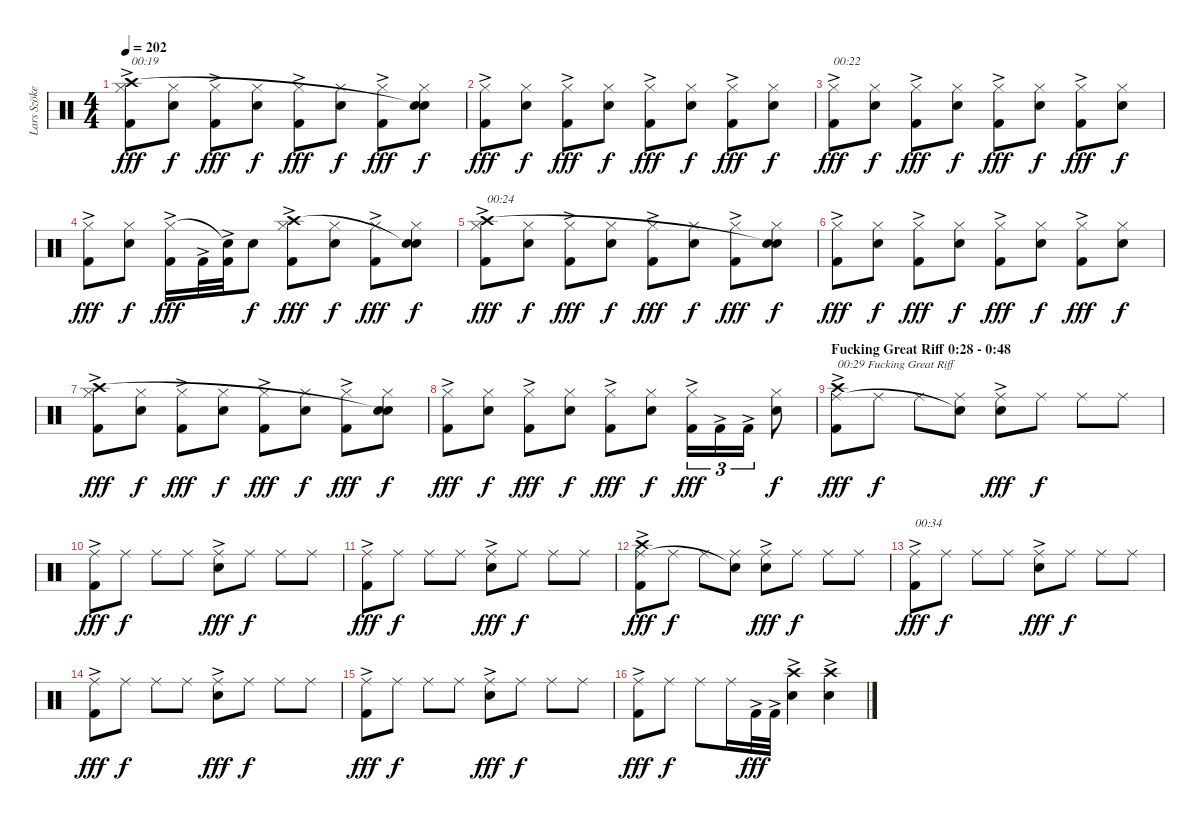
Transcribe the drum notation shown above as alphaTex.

\track ("Lars Szöke" "Lars Szöke") {instrument percussion}
\staff {score}
\articulation defaults
\ts (4 4)
\tempo 202
\clef neutral
\ks c
("Kick (hit) 2"{ac} "Hi-Hat (closed)" "Crash high (hit)"{ac}).8{txt "00:19" dy fff} ("Snare (hit) 2" "Hi-Hat (closed)").8{dy f} ("Kick (hit) 2"{ac} "Hi-Hat (closed)").8{dy fff} ("Snare (hit) 2" "Hi-Hat (closed)").8{dy f} ("Kick (hit) 2"{ac} "Hi-Hat (closed)").8{dy fff} ("Snare (hit) 2" "Hi-Hat (closed)").8{dy f} ("Kick (hit) 2"{ac} "Hi-Hat (closed)").8{dy fff} ("Snare (hit) 2" "Hi-Hat (closed)" "Snare (hit)"{t}).8{dy f} |
("Kick (hit) 2"{ac} "Hi-Hat (closed)").8{dy fff} ("Snare (hit) 2" "Hi-Hat (closed)").8{dy f} ("Kick (hit) 2"{ac} "Hi-Hat (closed)").8{dy fff} ("Snare (hit) 2" "Hi-Hat (closed)").8{dy f} ("Kick (hit) 2"{ac} "Hi-Hat (closed)").8{dy fff} ("Snare (hit) 2" "Hi-Hat (closed)").8{dy f} ("Kick (hit) 2"{ac} "Hi-Hat (closed)").8{dy fff} ("Snare (hit) 2" "Hi-Hat (closed)").8{dy f} |
("Kick (hit) 2"{ac} "Hi-Hat (closed)").8{txt "00:22" dy fff} ("Snare (hit) 2" "Hi-Hat (closed)").8{dy f} ("Kick (hit) 2"{ac} "Hi-Hat (closed)").8{dy fff} ("Snare (hit) 2" "Hi-Hat (closed)").8{dy f} ("Kick (hit) 2"{ac} "Hi-Hat (closed)").8{dy fff} ("Snare (hit) 2" "Hi-Hat (closed)").8{dy f} ("Kick (hit) 2"{ac} "Hi-Hat (closed)").8{dy fff} ("Snare (hit) 2" "Hi-Hat (closed)").8{dy f} |
("Kick (hit) 2"{ac} "Hi-Hat (closed)").8{dy fff} ("Snare (hit) 2" "Hi-Hat (closed)").8{dy f} ("Kick (hit) 2"{ac} "Hi-Hat (closed)").16{dy fff} "Kick (hit) 2"{ac}.32 ("Kick (hit) 2"{ac} "Snare (hit)"{t}).32 "Snare (hit) 2".8{dy f} ("Kick (hit) 2"{ac} "Hi-Hat (closed)" "Crash high (hit)"{ac}).8{dy fff} ("Snare (hit) 2" "Hi-Hat (closed)").8{dy f} ("Kick (hit) 2"{ac} "Hi-Hat (closed)").8{dy fff} ("Snare (hit) 2" "Hi-Hat (closed)" "Snare (hit)"{t}).8{dy f} |
("Kick (hit) 2"{ac} "Hi-Hat (closed)" "Crash high (hit)"{ac}).8{txt "00:24" dy fff} ("Snare (hit) 2" "Hi-Hat (closed)").8{dy f} ("Kick (hit) 2"{ac} "Hi-Hat (closed)").8{dy fff} ("Snare (hit) 2" "Hi-Hat (closed)").8{dy f} ("Kick (hit) 2"{ac} "Hi-Hat (closed)").8{dy fff} ("Snare (hit) 2" "Hi-Hat (closed)").8{dy f} ("Kick (hit) 2"{ac} "Hi-Hat (closed)").8{dy fff} ("Snare (hit) 2" "Hi-Hat (closed)" "Snare (hit)"{t}).8{dy f} |
("Kick (hit) 2"{ac} "Hi-Hat (closed)").8{dy fff} ("Snare (hit) 2" "Hi-Hat (closed)").8{dy f} ("Kick (hit) 2"{ac} "Hi-Hat (closed)").8{dy fff} ("Snare (hit) 2" "Hi-Hat (closed)").8{dy f} ("Kick (hit) 2"{ac} "Hi-Hat (closed)").8{dy fff} ("Snare (hit) 2" "Hi-Hat (closed)").8{dy f} ("Kick (hit) 2"{ac} "Hi-Hat (closed)").8{dy fff} ("Snare (hit) 2" "Hi-Hat (closed)").8{dy f} |
("Kick (hit) 2"{ac} "Hi-Hat (closed)" "Crash high (hit)"{ac}).8{dy fff} ("Snare (hit) 2" "Hi-Hat (closed)").8{dy f} ("Kick (hit) 2"{ac} "Hi-Hat (closed)").8{dy fff} ("Snare (hit) 2" "Hi-Hat (closed)").8{dy f} ("Kick (hit) 2"{ac} "Hi-Hat (closed)").8{dy fff} ("Snare (hit) 2" "Hi-Hat (closed)").8{dy f} ("Kick (hit) 2"{ac} "Hi-Hat (closed)").8{dy fff} ("Snare (hit) 2" "Hi-Hat (closed)" "Snare (hit)"{t}).8{dy f} |
("Kick (hit) 2"{ac} "Hi-Hat (closed)").8{dy fff} ("Snare (hit) 2" "Hi-Hat (closed)").8{dy f} ("Kick (hit) 2"{ac} "Hi-Hat (closed)").8{dy fff} ("Snare (hit) 2" "Hi-Hat (closed)").8{dy f} ("Kick (hit) 2"{ac} "Hi-Hat (closed)").8{dy fff} ("Snare (hit) 2" "Hi-Hat (closed)").8{dy f} ("Kick (hit) 2"{ac} "Hi-Hat (closed)").16{tu (3 2) dy fff} "Kick (hit) 2"{ac}.16{tu (3 2)} "Kick (hit) 2"{ac}.16{tu (3 2)} ("Snare (hit) 2" "Hi-Hat (closed)").8{dy f} |
\section ("" "Fucking Great Riff 0:28 - 0:48")
("Kick (hit) 2"{ac} "Ride (middle)" "Crash high (hit)"{ac}).8{txt "00:29 Fucking Great Riff" dy fff} "Ride (middle)".8{dy f} "Ride (middle)".8 ("Ride (middle)" "Snare (hit)"{t}).8 ("Snare (hit) 2"{ac} "Ride (middle)").8{dy fff} "Ride (middle)".8{dy f} "Ride (middle)".8 "Ride (middle)".8 |
("Kick (hit) 2"{ac} "Ride (middle)").8{dy fff} "Ride (middle)".8{dy f} "Ride (middle)".8 "Ride (middle)".8 ("Snare (hit) 2"{ac} "Ride (middle)").8{dy fff} "Ride (middle)".8{dy f} "Ride (middle)".8 "Ride (middle)".8 |
("Kick (hit) 2"{ac} "Ride (middle)").8{dy fff} "Ride (middle)".8{dy f} "Ride (middle)".8 "Ride (middle)".8 ("Snare (hit) 2"{ac} "Ride (middle)").8{dy fff} "Ride (middle)".8{dy f} "Ride (middle)".8 "Ride (middle)".8 |
("Kick (hit) 2"{ac} "Ride (middle)" "Crash high (hit)"{ac}).8{dy fff} "Ride (middle)".8{dy f} "Ride (middle)".8 ("Ride (middle)" "Snare (hit)"{t}).8 ("Snare (hit) 2"{ac} "Ride (middle)").8{dy fff} "Ride (middle)".8{dy f} "Ride (middle)".8 "Ride (middle)".8 |
("Kick (hit) 2"{ac} "Ride (middle)").8{txt "00:34" dy fff} "Ride (middle)".8{dy f} "Ride (middle)".8 "Ride (middle)".8 ("Snare (hit) 2"{ac} "Ride (middle)").8{dy fff} "Ride (middle)".8{dy f} "Ride (middle)".8 "Ride (middle)".8 |
("Kick (hit) 2"{ac} "Ride (middle)").8{dy fff} "Ride (middle)".8{dy f} "Ride (middle)".8 "Ride (middle)".8 ("Snare (hit) 2"{ac} "Ride (middle)").8{dy fff} "Ride (middle)".8{dy f} "Ride (middle)".8 "Ride (middle)".8 |
("Kick (hit) 2"{ac} "Ride (middle)").8{dy fff} "Ride (middle)".8{dy f} "Ride (middle)".8 "Ride (middle)".8 ("Snare (hit) 2"{ac} "Ride (middle)").8{dy fff} "Ride (middle)".8{dy f} "Ride (middle)".8 "Ride (middle)".8 |
("Kick (hit) 2"{ac} "Ride (middle)").8{dy fff} "Ride (middle)".8{dy f} "Ride (middle)".8 "Ride (middle)".16 "Kick (hit) 2"{ac}.32{dy fff} "Kick (hit) 2"{ac}.32 ("Snare (hit) 2"{ac} "Crash high (hit)"{ac}).4 ("Snare (hit) 2" "Crash high (hit)"{ac}).4
